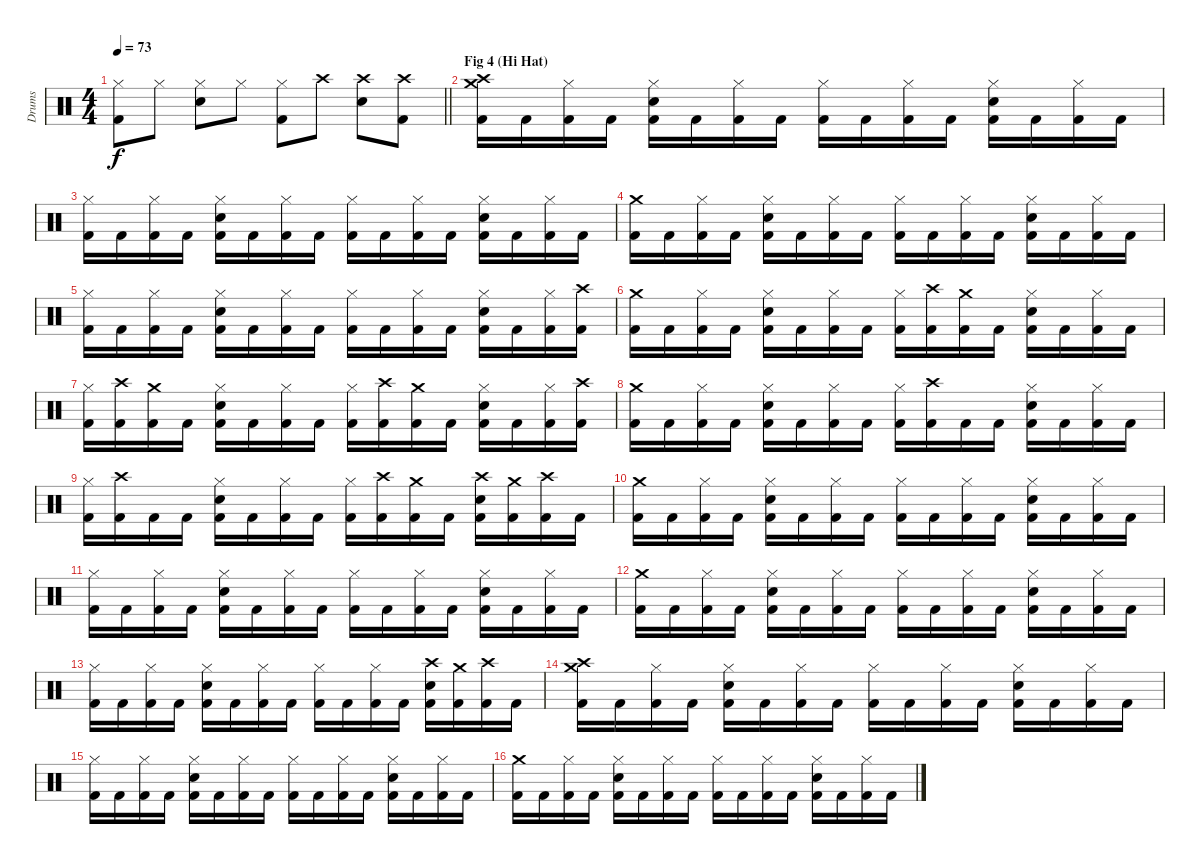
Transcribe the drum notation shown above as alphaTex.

\track ("Drums" "Drums") {instrument percussion}
\staff {score}
\articulation defaults
\ts (4 4)
\tempo 73
\clef neutral
\barLineRight lightlight
\ks c
("Hi-Hat (closed)" "Kick (hit) 2").8{dy f} "Hi-Hat (closed)".8 ("Hi-Hat (closed)" "Electric Snare (hit)").8 "Hi-Hat (closed)".8 ("Hi-Hat (closed)" "Kick (hit) 2").8 "Crash high (hit)".8 ("Crash high (hit)" "Electric Snare (hit)").8 ("Crash high (hit)" "Kick (hit) 2").8 |
\section ("" "Fig 4 (Hi Hat)")
("Crash medium (hit)" "Crash high (hit)" "Kick (hit) 2").16 "Kick (hit) 2".16 ("Hi-Hat (closed)" "Kick (hit) 2").16 "Kick (hit) 2".16 ("Hi-Hat (closed)" "Electric Snare (hit)" "Kick (hit) 2").16 "Kick (hit) 2".16 ("Hi-Hat (closed)" "Kick (hit) 2").16 "Kick (hit) 2".16 ("Hi-Hat (closed)" "Kick (hit) 2").16 "Kick (hit) 2".16 ("Hi-Hat (closed)" "Kick (hit) 2").16 "Kick (hit) 2".16 ("Hi-Hat (closed)" "Electric Snare (hit)" "Kick (hit) 2").16 "Kick (hit) 2".16 ("Hi-Hat (closed)" "Kick (hit) 2").16 "Kick (hit) 2".16 |
("Hi-Hat (closed)" "Kick (hit) 2").16 "Kick (hit) 2".16 ("Hi-Hat (closed)" "Kick (hit) 2").16 "Kick (hit) 2".16 ("Hi-Hat (closed)" "Electric Snare (hit)" "Kick (hit) 2").16 "Kick (hit) 2".16 ("Hi-Hat (closed)" "Kick (hit) 2").16 "Kick (hit) 2".16 ("Hi-Hat (closed)" "Kick (hit) 2").16 "Kick (hit) 2".16 ("Hi-Hat (closed)" "Kick (hit) 2").16 "Kick (hit) 2".16 ("Hi-Hat (closed)" "Electric Snare (hit)" "Kick (hit) 2").16 "Kick (hit) 2".16 ("Hi-Hat (closed)" "Kick (hit) 2").16 "Kick (hit) 2".16 |
("Crash medium (hit)" "Kick (hit) 2").16 "Kick (hit) 2".16 ("Hi-Hat (closed)" "Kick (hit) 2").16 "Kick (hit) 2".16 ("Hi-Hat (closed)" "Electric Snare (hit)" "Kick (hit) 2").16 "Kick (hit) 2".16 ("Hi-Hat (closed)" "Kick (hit) 2").16 "Kick (hit) 2".16 ("Hi-Hat (closed)" "Kick (hit) 2").16 "Kick (hit) 2".16 ("Hi-Hat (closed)" "Kick (hit) 2").16 "Kick (hit) 2".16 ("Hi-Hat (closed)" "Electric Snare (hit)" "Kick (hit) 2").16 "Kick (hit) 2".16 ("Hi-Hat (closed)" "Kick (hit) 2").16 "Kick (hit) 2".16 |
("Hi-Hat (closed)" "Kick (hit) 2").16 "Kick (hit) 2".16 ("Hi-Hat (closed)" "Kick (hit) 2").16 "Kick (hit) 2".16 ("Hi-Hat (closed)" "Electric Snare (hit)" "Kick (hit) 2").16 "Kick (hit) 2".16 ("Hi-Hat (closed)" "Kick (hit) 2").16 "Kick (hit) 2".16 ("Hi-Hat (closed)" "Kick (hit) 2").16 "Kick (hit) 2".16 ("Hi-Hat (closed)" "Kick (hit) 2").16 "Kick (hit) 2".16 ("Hi-Hat (closed)" "Electric Snare (hit)" "Kick (hit) 2").16 "Kick (hit) 2".16 ("Hi-Hat (closed)" "Kick (hit) 2").16 ("Crash high (hit)" "Kick (hit) 2").16 |
("Crash medium (hit)" "Kick (hit) 2").16 "Kick (hit) 2".16 ("Hi-Hat (closed)" "Kick (hit) 2").16 "Kick (hit) 2".16 ("Hi-Hat (closed)" "Electric Snare (hit)" "Kick (hit) 2").16 "Kick (hit) 2".16 ("Hi-Hat (closed)" "Kick (hit) 2").16 "Kick (hit) 2".16 ("Hi-Hat (closed)" "Kick (hit) 2").16 ("Crash high (hit)" "Kick (hit) 2").16 ("Crash medium (hit)" "Kick (hit) 2").16 "Kick (hit) 2".16 ("Hi-Hat (closed)" "Electric Snare (hit)" "Kick (hit) 2").16 "Kick (hit) 2".16 ("Hi-Hat (closed)" "Kick (hit) 2").16 "Kick (hit) 2".16 |
("Hi-Hat (closed)" "Kick (hit) 2").16 ("Crash high (hit)" "Kick (hit) 2").16 ("Crash medium (hit)" "Kick (hit) 2").16 "Kick (hit) 2".16 ("Hi-Hat (closed)" "Electric Snare (hit)" "Kick (hit) 2").16 "Kick (hit) 2".16 ("Hi-Hat (closed)" "Kick (hit) 2").16 "Kick (hit) 2".16 ("Hi-Hat (closed)" "Kick (hit) 2").16 ("Crash high (hit)" "Kick (hit) 2").16 ("Crash medium (hit)" "Kick (hit) 2").16 "Kick (hit) 2".16 ("Hi-Hat (closed)" "Electric Snare (hit)" "Kick (hit) 2").16 "Kick (hit) 2".16 ("Hi-Hat (closed)" "Kick (hit) 2").16 ("Crash high (hit)" "Kick (hit) 2").16 |
("Crash medium (hit)" "Kick (hit) 2").16 "Kick (hit) 2".16 ("Hi-Hat (closed)" "Kick (hit) 2").16 "Kick (hit) 2".16 ("Hi-Hat (closed)" "Electric Snare (hit)" "Kick (hit) 2").16 "Kick (hit) 2".16 ("Hi-Hat (closed)" "Kick (hit) 2").16 "Kick (hit) 2".16 ("Hi-Hat (closed)" "Kick (hit) 2").16 ("Crash high (hit)" "Kick (hit) 2").16 "Kick (hit) 2".16 "Kick (hit) 2".16 ("Hi-Hat (closed)" "Electric Snare (hit)" "Kick (hit) 2").16 "Kick (hit) 2".16 ("Hi-Hat (closed)" "Kick (hit) 2").16 "Kick (hit) 2".16 |
("Hi-Hat (closed)" "Kick (hit) 2").16 ("Crash high (hit)" "Kick (hit) 2").16 "Kick (hit) 2".16 "Kick (hit) 2".16 ("Hi-Hat (closed)" "Electric Snare (hit)" "Kick (hit) 2").16 "Kick (hit) 2".16 ("Hi-Hat (closed)" "Kick (hit) 2").16 "Kick (hit) 2".16 ("Hi-Hat (closed)" "Kick (hit) 2").16 ("Crash high (hit)" "Kick (hit) 2").16 ("Crash medium (hit)" "Kick (hit) 2").16 "Kick (hit) 2".16 ("Crash high (hit)" "Electric Snare (hit)" "Kick (hit) 2").16 ("Crash medium (hit)" "Kick (hit) 2").16 ("Crash high (hit)" "Kick (hit) 2").16 "Kick (hit) 2".16 |
("Crash medium (hit)" "Kick (hit) 2").16 "Kick (hit) 2".16 ("Hi-Hat (closed)" "Kick (hit) 2").16 "Kick (hit) 2".16 ("Hi-Hat (closed)" "Electric Snare (hit)" "Kick (hit) 2").16 "Kick (hit) 2".16 ("Hi-Hat (closed)" "Kick (hit) 2").16 "Kick (hit) 2".16 ("Hi-Hat (closed)" "Kick (hit) 2").16 "Kick (hit) 2".16 ("Hi-Hat (closed)" "Kick (hit) 2").16 "Kick (hit) 2".16 ("Hi-Hat (closed)" "Electric Snare (hit)" "Kick (hit) 2").16 "Kick (hit) 2".16 ("Hi-Hat (closed)" "Kick (hit) 2").16 "Kick (hit) 2".16 |
("Hi-Hat (closed)" "Kick (hit) 2").16 "Kick (hit) 2".16 ("Hi-Hat (closed)" "Kick (hit) 2").16 "Kick (hit) 2".16 ("Hi-Hat (closed)" "Electric Snare (hit)" "Kick (hit) 2").16 "Kick (hit) 2".16 ("Hi-Hat (closed)" "Kick (hit) 2").16 "Kick (hit) 2".16 ("Hi-Hat (closed)" "Kick (hit) 2").16 "Kick (hit) 2".16 ("Hi-Hat (closed)" "Kick (hit) 2").16 "Kick (hit) 2".16 ("Hi-Hat (closed)" "Electric Snare (hit)" "Kick (hit) 2").16 "Kick (hit) 2".16 ("Hi-Hat (closed)" "Kick (hit) 2").16 "Kick (hit) 2".16 |
("Crash medium (hit)" "Kick (hit) 2").16 "Kick (hit) 2".16 ("Hi-Hat (closed)" "Kick (hit) 2").16 "Kick (hit) 2".16 ("Hi-Hat (closed)" "Electric Snare (hit)" "Kick (hit) 2").16 "Kick (hit) 2".16 ("Hi-Hat (closed)" "Kick (hit) 2").16 "Kick (hit) 2".16 ("Hi-Hat (closed)" "Kick (hit) 2").16 "Kick (hit) 2".16 ("Hi-Hat (closed)" "Kick (hit) 2").16 "Kick (hit) 2".16 ("Hi-Hat (closed)" "Electric Snare (hit)" "Kick (hit) 2").16 "Kick (hit) 2".16 ("Hi-Hat (closed)" "Kick (hit) 2").16 "Kick (hit) 2".16 |
("Hi-Hat (closed)" "Kick (hit) 2").16 "Kick (hit) 2".16 ("Hi-Hat (closed)" "Kick (hit) 2").16 "Kick (hit) 2".16 ("Hi-Hat (closed)" "Electric Snare (hit)" "Kick (hit) 2").16 "Kick (hit) 2".16 ("Hi-Hat (closed)" "Kick (hit) 2").16 "Kick (hit) 2".16 ("Hi-Hat (closed)" "Kick (hit) 2").16 "Kick (hit) 2".16 ("Hi-Hat (closed)" "Kick (hit) 2").16 "Kick (hit) 2".16 ("Crash high (hit)" "Electric Snare (hit)" "Kick (hit) 2").16 ("Crash medium (hit)" "Kick (hit) 2").16 ("Crash high (hit)" "Kick (hit) 2").16 "Kick (hit) 2".16 |
("Crash medium (hit)" "Crash high (hit)" "Kick (hit) 2").16 "Kick (hit) 2".16 ("Hi-Hat (closed)" "Kick (hit) 2").16 "Kick (hit) 2".16 ("Hi-Hat (closed)" "Electric Snare (hit)" "Kick (hit) 2").16 "Kick (hit) 2".16 ("Hi-Hat (closed)" "Kick (hit) 2").16 "Kick (hit) 2".16 ("Hi-Hat (closed)" "Kick (hit) 2").16 "Kick (hit) 2".16 ("Hi-Hat (closed)" "Kick (hit) 2").16 "Kick (hit) 2".16 ("Hi-Hat (closed)" "Electric Snare (hit)" "Kick (hit) 2").16 "Kick (hit) 2".16 ("Hi-Hat (closed)" "Kick (hit) 2").16 "Kick (hit) 2".16 |
("Hi-Hat (closed)" "Kick (hit) 2").16 "Kick (hit) 2".16 ("Hi-Hat (closed)" "Kick (hit) 2").16 "Kick (hit) 2".16 ("Hi-Hat (closed)" "Electric Snare (hit)" "Kick (hit) 2").16 "Kick (hit) 2".16 ("Hi-Hat (closed)" "Kick (hit) 2").16 "Kick (hit) 2".16 ("Hi-Hat (closed)" "Kick (hit) 2").16 "Kick (hit) 2".16 ("Hi-Hat (closed)" "Kick (hit) 2").16 "Kick (hit) 2".16 ("Hi-Hat (closed)" "Electric Snare (hit)" "Kick (hit) 2").16 "Kick (hit) 2".16 ("Hi-Hat (closed)" "Kick (hit) 2").16 "Kick (hit) 2".16 |
("Crash medium (hit)" "Kick (hit) 2").16 "Kick (hit) 2".16 ("Hi-Hat (closed)" "Kick (hit) 2").16 "Kick (hit) 2".16 ("Hi-Hat (closed)" "Electric Snare (hit)" "Kick (hit) 2").16 "Kick (hit) 2".16 ("Hi-Hat (closed)" "Kick (hit) 2").16 "Kick (hit) 2".16 ("Hi-Hat (closed)" "Kick (hit) 2").16 "Kick (hit) 2".16 ("Hi-Hat (closed)" "Kick (hit) 2").16 "Kick (hit) 2".16 ("Hi-Hat (closed)" "Electric Snare (hit)" "Kick (hit) 2").16 "Kick (hit) 2".16 ("Hi-Hat (closed)" "Kick (hit) 2").16 "Kick (hit) 2".16
